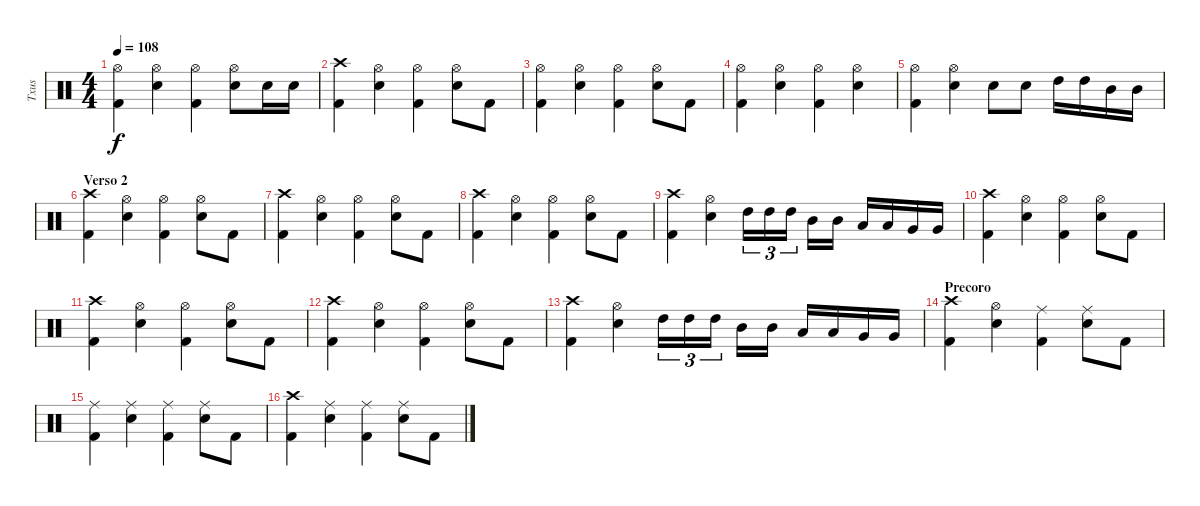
\track ("Txus" "Txus") {instrument percussion}
\staff {score}
\articulation defaults
\ts (4 4)
\tempo 108
\clef neutral
\ks c
("Kick (hit) 2" "Hi-Hat (open)").4{dy f} ("Electric Snare (hit)" "Hi-Hat (open)").4 ("Kick (hit) 2" "Hi-Hat (open)").4 ("Electric Snare (hit)" "Hi-Hat (open)").8 "Electric Snare (hit)".16 "Electric Snare (hit)".16 |
("Kick (hit) 2" "Crash high (hit)").4 ("Electric Snare (hit)" "Hi-Hat (open)").4 ("Kick (hit) 2" "Hi-Hat (open)").4 ("Electric Snare (hit)" "Hi-Hat (open)").8 "Kick (hit) 2".8 |
("Kick (hit) 2" "Hi-Hat (open)").4 ("Electric Snare (hit)" "Hi-Hat (open)").4 ("Kick (hit) 2" "Hi-Hat (open)").4 ("Electric Snare (hit)" "Hi-Hat (open)").8 "Kick (hit) 2".8 |
("Kick (hit) 2" "Hi-Hat (open)").4 ("Electric Snare (hit)" "Hi-Hat (open)").4 ("Kick (hit) 2" "Hi-Hat (open)").4 ("Electric Snare (hit)" "Hi-Hat (open)").4 |
("Kick (hit) 2" "Hi-Hat (open)").4 ("Electric Snare (hit)" "Hi-Hat (open)").4 "Electric Snare (hit)".8 "Electric Snare (hit)".8 "High Tom (hit)".16 "High Tom (hit)".16 "Mid Tom (hit)".16 "Mid Tom (hit)".16 |
\section ("" "Verso 2")
("Kick (hit) 2" "Crash high (hit)").4 ("Electric Snare (hit)" "Hi-Hat (open)").4 ("Kick (hit) 2" "Hi-Hat (open)").4 ("Electric Snare (hit)" "Hi-Hat (open)").8 "Kick (hit) 2".8 |
("Kick (hit) 2" "Crash high (hit)").4 ("Electric Snare (hit)" "Hi-Hat (open)").4 ("Kick (hit) 2" "Hi-Hat (open)").4 ("Electric Snare (hit)" "Hi-Hat (open)").8 "Kick (hit) 2".8 |
("Kick (hit) 2" "Crash high (hit)").4 ("Electric Snare (hit)" "Hi-Hat (open)").4 ("Kick (hit) 2" "Hi-Hat (open)").4 ("Electric Snare (hit)" "Hi-Hat (open)").8 "Kick (hit) 2".8 |
("Kick (hit) 2" "Crash high (hit)").4 ("Electric Snare (hit)" "Hi-Hat (open)").4 "High Tom (hit)".16{tu (3 2)} "High Tom (hit)".16{tu (3 2)} "High Tom (hit)".16{tu (3 2)} "Mid Tom (hit)".16 "Mid Tom (hit)".16 "Low Tom (hit)".16 "Low Tom (hit)".16 "Very Low Tom (hit)".16 "Very Low Tom (hit)".16 |
("Kick (hit) 2" "Crash high (hit)").4 ("Electric Snare (hit)" "Hi-Hat (open)").4 ("Kick (hit) 2" "Hi-Hat (open)").4 ("Electric Snare (hit)" "Hi-Hat (open)").8 "Kick (hit) 2".8 |
("Kick (hit) 2" "Crash high (hit)").4 ("Electric Snare (hit)" "Hi-Hat (open)").4 ("Kick (hit) 2" "Hi-Hat (open)").4 ("Electric Snare (hit)" "Hi-Hat (open)").8 "Kick (hit) 2".8 |
("Kick (hit) 2" "Crash high (hit)").4 ("Electric Snare (hit)" "Hi-Hat (open)").4 ("Kick (hit) 2" "Hi-Hat (open)").4 ("Electric Snare (hit)" "Hi-Hat (open)").8 "Kick (hit) 2".8 |
("Kick (hit) 2" "Crash high (hit)").4 ("Electric Snare (hit)" "Hi-Hat (open)").4 "High Tom (hit)".16{tu (3 2)} "High Tom (hit)".16{tu (3 2)} "High Tom (hit)".16{tu (3 2)} "Mid Tom (hit)".16 "Mid Tom (hit)".16 "Low Tom (hit)".16 "Low Tom (hit)".16 "Very Low Tom (hit)".16 "Very Low Tom (hit)".16 |
\section ("" "Precoro")
("Kick (hit) 2" "Crash high (hit)").4 ("Electric Snare (hit)" "Hi-Hat (open)").4 ("Kick (hit) 2" "Ride (middle)").4 ("Electric Snare (hit)" "Ride (middle)").8 "Kick (hit) 2".8 |
("Kick (hit) 2" "Ride (middle)").4 ("Electric Snare (hit)" "Ride (middle)").4 ("Kick (hit) 2" "Ride (middle)").4 ("Electric Snare (hit)" "Ride (middle)").8 "Kick (hit) 2".8 |
("Kick (hit) 2" "Crash high (hit)").4 ("Electric Snare (hit)" "Ride (middle)").4 ("Kick (hit) 2" "Ride (middle)").4 ("Electric Snare (hit)" "Ride (middle)").8 "Kick (hit) 2".8
